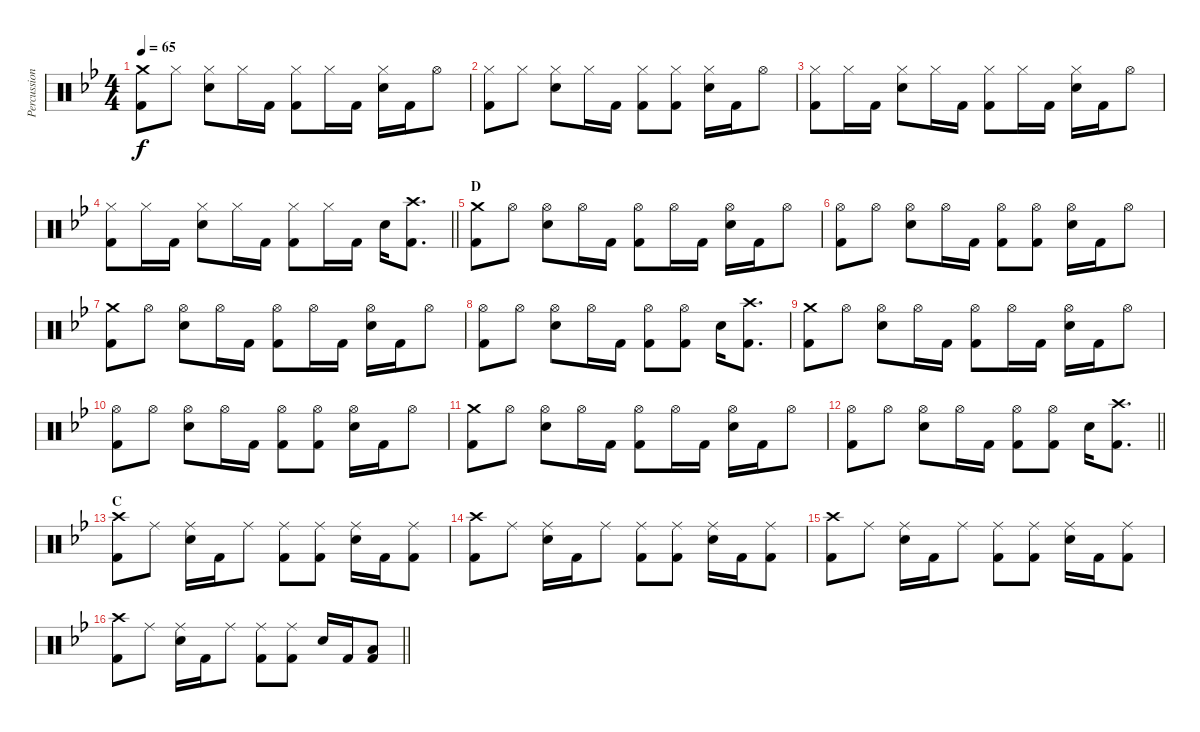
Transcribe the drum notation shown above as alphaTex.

\track ("Percussion" "Percussion") {instrument percussion}
\staff {score}
\articulation defaults
\ts (4 4)
\tempo 65
\clef neutral
\ks bb
("Kick (hit) 2" "Crash medium (hit)").8{dy f} "Hi-Hat (closed)".8 ("Hi-Hat (closed)" "Snare (hit) 2").8 "Hi-Hat (closed)".16 "Kick (hit) 2".16 ("Kick (hit) 2" "Hi-Hat (closed)").8 "Hi-Hat (closed)".16 "Kick (hit) 2".16 ("Hi-Hat (closed)" "Snare (hit) 2").16 "Kick (hit) 2".16 "Hi-Hat (open)".8 |
("Kick (hit) 2" "Hi-Hat (closed)").8 "Hi-Hat (closed)".8 ("Hi-Hat (closed)" "Snare (hit) 2").8 "Hi-Hat (closed)".16 "Kick (hit) 2".16 ("Kick (hit) 2" "Hi-Hat (closed)").8 ("Hi-Hat (closed)" "Kick (hit) 2").8 ("Hi-Hat (closed)" "Snare (hit) 2").16 "Kick (hit) 2".16 "Hi-Hat (open)".8 |
("Kick (hit) 2" "Hi-Hat (closed)").8 "Hi-Hat (closed)".16 "Kick (hit) 2".16 ("Hi-Hat (closed)" "Snare (hit) 2").8 "Hi-Hat (closed)".16 "Kick (hit) 2".16 ("Kick (hit) 2" "Hi-Hat (closed)").8 "Hi-Hat (closed)".16 "Kick (hit) 2".16 ("Hi-Hat (closed)" "Snare (hit) 2").16 "Kick (hit) 2".16 "Hi-Hat (open)".8 |
\barLineRight lightlight
("Kick (hit) 2" "Hi-Hat (closed)").8 "Hi-Hat (closed)".16 "Kick (hit) 2".16 ("Hi-Hat (closed)" "Snare (hit) 2").8 "Hi-Hat (closed)".16 "Kick (hit) 2".16 ("Kick (hit) 2" "Hi-Hat (closed)").8 "Hi-Hat (closed)".16 "Kick (hit) 2".16 "Snare (hit) 2".16 ("Crash high (hit)" "Kick (hit) 2").8{d} |
\section ("" "D")
("Kick (hit) 2" "Crash medium (hit)").8 "Hi-Hat (open)".8 ("Hi-Hat (open)" "Snare (hit) 2").8 "Hi-Hat (open)".16 "Kick (hit) 2".16 ("Kick (hit) 2" "Hi-Hat (open)").8 "Hi-Hat (open)".16 "Kick (hit) 2".16 ("Hi-Hat (open)" "Snare (hit) 2").16 "Kick (hit) 2".16 "Hi-Hat (open)".8 |
("Kick (hit) 2" "Hi-Hat (open)").8 "Hi-Hat (open)".8 ("Hi-Hat (open)" "Snare (hit) 2").8 "Hi-Hat (open)".16 "Kick (hit) 2".16 ("Kick (hit) 2" "Hi-Hat (open)").8 ("Hi-Hat (open)" "Kick (hit) 2").8 ("Hi-Hat (open)" "Snare (hit) 2").16 "Kick (hit) 2".16 "Hi-Hat (open)".8 |
("Kick (hit) 2" "Crash medium (hit)").8 "Hi-Hat (open)".8 ("Hi-Hat (open)" "Snare (hit) 2").8 "Hi-Hat (open)".16 "Kick (hit) 2".16 ("Kick (hit) 2" "Hi-Hat (open)").8 "Hi-Hat (open)".16 "Kick (hit) 2".16 ("Hi-Hat (open)" "Snare (hit) 2").16 "Kick (hit) 2".16 "Hi-Hat (open)".8 |
("Kick (hit) 2" "Hi-Hat (open)").8 "Hi-Hat (open)".8 ("Hi-Hat (open)" "Snare (hit) 2").8 "Hi-Hat (open)".16 "Kick (hit) 2".16 ("Kick (hit) 2" "Hi-Hat (open)").8 ("Hi-Hat (open)" "Kick (hit) 2").8 "Snare (hit) 2".16 ("Crash high (hit)" "Kick (hit) 2").8{d} |
("Kick (hit) 2" "Crash medium (hit)").8 "Hi-Hat (open)".8 ("Hi-Hat (open)" "Snare (hit) 2").8 "Hi-Hat (open)".16 "Kick (hit) 2".16 ("Kick (hit) 2" "Hi-Hat (open)").8 "Hi-Hat (open)".16 "Kick (hit) 2".16 ("Hi-Hat (open)" "Snare (hit) 2").16 "Kick (hit) 2".16 "Hi-Hat (open)".8 |
("Kick (hit) 2" "Hi-Hat (open)").8 "Hi-Hat (open)".8 ("Hi-Hat (open)" "Snare (hit) 2").8 "Hi-Hat (open)".16 "Kick (hit) 2".16 ("Kick (hit) 2" "Hi-Hat (open)").8 ("Hi-Hat (open)" "Kick (hit) 2").8 ("Hi-Hat (open)" "Snare (hit) 2").16 "Kick (hit) 2".16 "Hi-Hat (open)".8 |
("Kick (hit) 2" "Crash medium (hit)").8 "Hi-Hat (open)".8 ("Hi-Hat (open)" "Snare (hit) 2").8 "Hi-Hat (open)".16 "Kick (hit) 2".16 ("Kick (hit) 2" "Hi-Hat (open)").8 "Hi-Hat (open)".16 "Kick (hit) 2".16 ("Hi-Hat (open)" "Snare (hit) 2").16 "Kick (hit) 2".16 "Hi-Hat (open)".8 |
\barLineRight lightlight
("Kick (hit) 2" "Hi-Hat (open)").8 "Hi-Hat (open)".8 ("Hi-Hat (open)" "Snare (hit) 2").8 "Hi-Hat (open)".16 "Kick (hit) 2".16 ("Kick (hit) 2" "Hi-Hat (open)").8 ("Hi-Hat (open)" "Kick (hit) 2").8 "Snare (hit) 2".16 ("Crash high (hit)" "Kick (hit) 2").8{d} |
\section ("" "C")
("Crash high (hit)" "Kick (hit) 2").8 "Ride (middle)".8 ("Ride (middle)" "Snare (hit) 2").16 "Kick (hit) 2".16 "Ride (middle)".8 ("Ride (middle)" "Kick (hit) 2").8 ("Ride (middle)" "Kick (hit) 2").8 ("Ride (middle)" "Snare (hit) 2").16 "Kick (hit) 2".16 ("Kick (hit) 2" "Ride (middle)").8 |
("Crash high (hit)" "Kick (hit) 2").8 "Ride (middle)".8 ("Ride (middle)" "Snare (hit) 2").16 "Kick (hit) 2".16 "Ride (middle)".8 ("Ride (middle)" "Kick (hit) 2").8 ("Ride (middle)" "Kick (hit) 2").8 ("Ride (middle)" "Snare (hit) 2").16 "Kick (hit) 2".16 ("Kick (hit) 2" "Ride (middle)").8 |
("Crash high (hit)" "Kick (hit) 2").8 "Ride (middle)".8 ("Ride (middle)" "Snare (hit) 2").16 "Kick (hit) 2".16 "Ride (middle)".8 ("Ride (middle)" "Kick (hit) 2").8 ("Ride (middle)" "Kick (hit) 2").8 ("Ride (middle)" "Snare (hit) 2").16 "Kick (hit) 2".16 ("Kick (hit) 2" "Ride (middle)").8 |
\barLineRight lightlight
("Crash high (hit)" "Kick (hit) 2").8 "Ride (middle)".8 ("Ride (middle)" "Snare (hit) 2").16 "Kick (hit) 2".16 "Ride (middle)".8 ("Ride (middle)" "Kick (hit) 2").8 ("Ride (middle)" "Kick (hit) 2").8 "Snare (hit) 2".16 "Kick (hit) 2".16 ("Low Tom (hit)" "Kick (hit) 2").8
